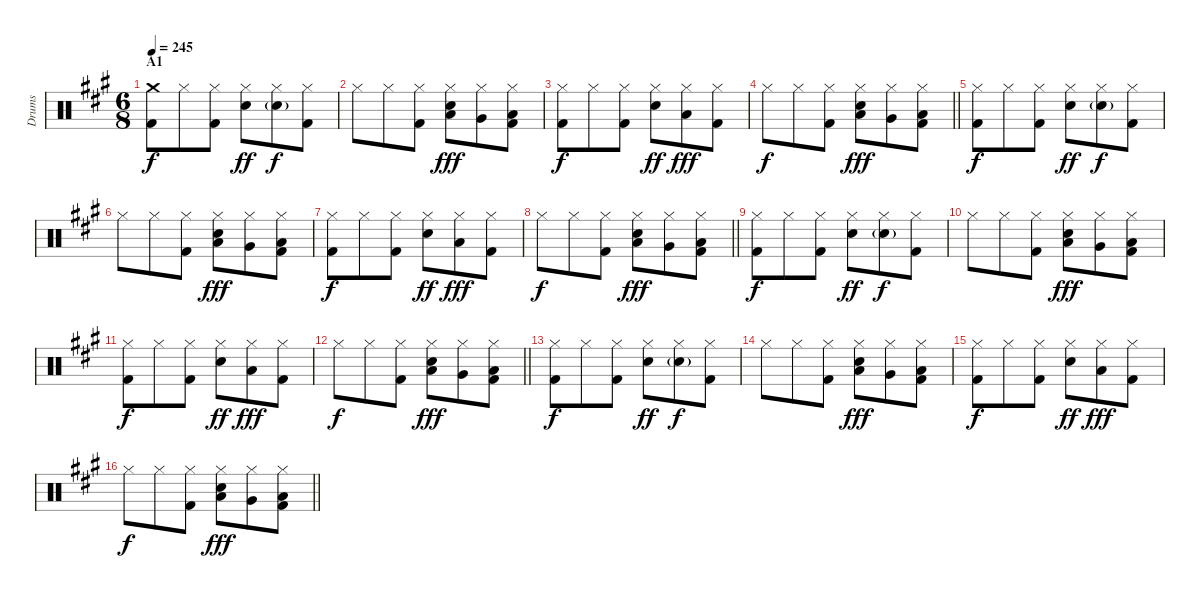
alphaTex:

\track ("Drums" "Drums") {instrument percussion}
\staff {score}
\articulation defaults
\ts (6 8)
\section ("" "A1")
\tempo 245
\clef neutral
\ks a
("Crash medium (hit)" "Kick (hit) 2").8{dy f} "Hi-Hat (closed)".8 ("Hi-Hat (closed)" "Kick (hit) 2").8 ("Hi-Hat (closed)" "Electric Snare (hit)").8{dy ff} ("Hi-Hat (closed)" "Electric Snare (hit)"{g}).8{dy f} ("Hi-Hat (closed)" "Kick (hit) 2").8 |
"Hi-Hat (closed)".8 "Hi-Hat (closed)".8 ("Hi-Hat (closed)" "Kick (hit) 2").8 ("Hi-Hat (closed)" "Low Tom (hit)" "Electric Snare (hit)").8{dy fff} ("Hi-Hat (closed)" "Very Low Tom (hit)").8 ("Hi-Hat (closed)" "Low Floor Tom (hit)" "Kick (hit) 2").8 |
("Hi-Hat (closed)" "Kick (hit) 2").8{dy f} "Hi-Hat (closed)".8 ("Hi-Hat (closed)" "Kick (hit) 2").8 ("Hi-Hat (closed)" "Electric Snare (hit)").8{dy ff} ("Hi-Hat (closed)" "Low Tom (hit)").8{dy fff} ("Hi-Hat (closed)" "Kick (hit) 2").8 |
\barLineRight lightlight "Hi-Hat (closed)".8{dy f} "Hi-Hat (closed)".8
("Hi-Hat (closed)" "Kick (hit) 2").8 ("Hi-Hat (closed)" "Low Tom (hit)" "Electric Snare (hit)").8{dy fff} ("Hi-Hat (closed)" "Very Low Tom (hit)").8 ("Hi-Hat (closed)" "Low Floor Tom (hit)" "Kick (hit) 2").8 |
\section ("" "")
("Hi-Hat (closed)" "Kick (hit) 2").8{dy f} "Hi-Hat (closed)".8 ("Hi-Hat (closed)" "Kick (hit) 2").8 ("Hi-Hat (closed)" "Electric Snare (hit)").8{dy ff} ("Hi-Hat (closed)" "Electric Snare (hit)"{g}).8{dy f} ("Hi-Hat (closed)" "Kick (hit) 2").8 |
"Hi-Hat (closed)".8 "Hi-Hat (closed)".8 ("Hi-Hat (closed)" "Kick (hit) 2").8 ("Hi-Hat (closed)" "Low Tom (hit)" "Electric Snare (hit)").8{dy fff} ("Hi-Hat (closed)" "Very Low Tom (hit)").8 ("Hi-Hat (closed)" "Low Floor Tom (hit)" "Kick (hit) 2").8 |
("Hi-Hat (closed)" "Kick (hit) 2").8{dy f} "Hi-Hat (closed)".8 ("Hi-Hat (closed)" "Kick (hit) 2").8 ("Hi-Hat (closed)" "Electric Snare (hit)").8{dy ff} ("Hi-Hat (closed)" "Low Tom (hit)").8{dy fff} ("Hi-Hat (closed)" "Kick (hit) 2").8 |
\barLineRight lightlight "Hi-Hat (closed)".8{dy f} "Hi-Hat (closed)".8
("Hi-Hat (closed)" "Kick (hit) 2").8 ("Hi-Hat (closed)" "Low Tom (hit)" "Electric Snare (hit)").8{dy fff} ("Hi-Hat (closed)" "Very Low Tom (hit)").8 ("Hi-Hat (closed)" "Low Floor Tom (hit)" "Kick (hit) 2").8 |
\section ("" "")
("Hi-Hat (closed)" "Kick (hit) 2").8{dy f} "Hi-Hat (closed)".8 ("Hi-Hat (closed)" "Kick (hit) 2").8 ("Hi-Hat (closed)" "Electric Snare (hit)").8{dy ff} ("Hi-Hat (closed)" "Electric Snare (hit)"{g}).8{dy f} ("Hi-Hat (closed)" "Kick (hit) 2").8 |
"Hi-Hat (closed)".8 "Hi-Hat (closed)".8 ("Hi-Hat (closed)" "Kick (hit) 2").8 ("Hi-Hat (closed)" "Low Tom (hit)" "Electric Snare (hit)").8{dy fff} ("Hi-Hat (closed)" "Very Low Tom (hit)").8 ("Hi-Hat (closed)" "Low Floor Tom (hit)" "Kick (hit) 2").8 |
("Hi-Hat (closed)" "Kick (hit) 2").8{dy f} "Hi-Hat (closed)".8 ("Hi-Hat (closed)" "Kick (hit) 2").8 ("Hi-Hat (closed)" "Electric Snare (hit)").8{dy ff} ("Hi-Hat (closed)" "Low Tom (hit)").8{dy fff} ("Hi-Hat (closed)" "Kick (hit) 2").8 |
\barLineRight lightlight "Hi-Hat (closed)".8{dy f} "Hi-Hat (closed)".8
("Hi-Hat (closed)" "Kick (hit) 2").8 ("Hi-Hat (closed)" "Low Tom (hit)" "Electric Snare (hit)").8{dy fff} ("Hi-Hat (closed)" "Very Low Tom (hit)").8 ("Hi-Hat (closed)" "Low Floor Tom (hit)" "Kick (hit) 2").8 |
\section ("" "")
("Hi-Hat (closed)" "Kick (hit) 2").8{dy f} "Hi-Hat (closed)".8 ("Hi-Hat (closed)" "Kick (hit) 2").8 ("Hi-Hat (closed)" "Electric Snare (hit)").8{dy ff} ("Hi-Hat (closed)" "Electric Snare (hit)"{g}).8{dy f} ("Hi-Hat (closed)" "Kick (hit) 2").8 |
"Hi-Hat (closed)".8 "Hi-Hat (closed)".8 ("Hi-Hat (closed)" "Kick (hit) 2").8 ("Hi-Hat (closed)" "Low Tom (hit)" "Electric Snare (hit)").8{dy fff} ("Hi-Hat (closed)" "Very Low Tom (hit)").8 ("Hi-Hat (closed)" "Low Floor Tom (hit)" "Kick (hit) 2").8 |
("Hi-Hat (closed)" "Kick (hit) 2").8{dy f} "Hi-Hat (closed)".8 ("Hi-Hat (closed)" "Kick (hit) 2").8 ("Hi-Hat (closed)" "Electric Snare (hit)").8{dy ff} ("Hi-Hat (closed)" "Low Tom (hit)").8{dy fff} ("Hi-Hat (closed)" "Kick (hit) 2").8 |
\barLineRight lightlight "Hi-Hat (closed)".8{dy f} "Hi-Hat (closed)".8
("Hi-Hat (closed)" "Kick (hit) 2").8 ("Hi-Hat (closed)" "Low Tom (hit)" "Electric Snare (hit)").8{dy fff} ("Hi-Hat (closed)" "Very Low Tom (hit)").8 ("Hi-Hat (closed)" "Low Floor Tom (hit)" "Kick (hit) 2").8
